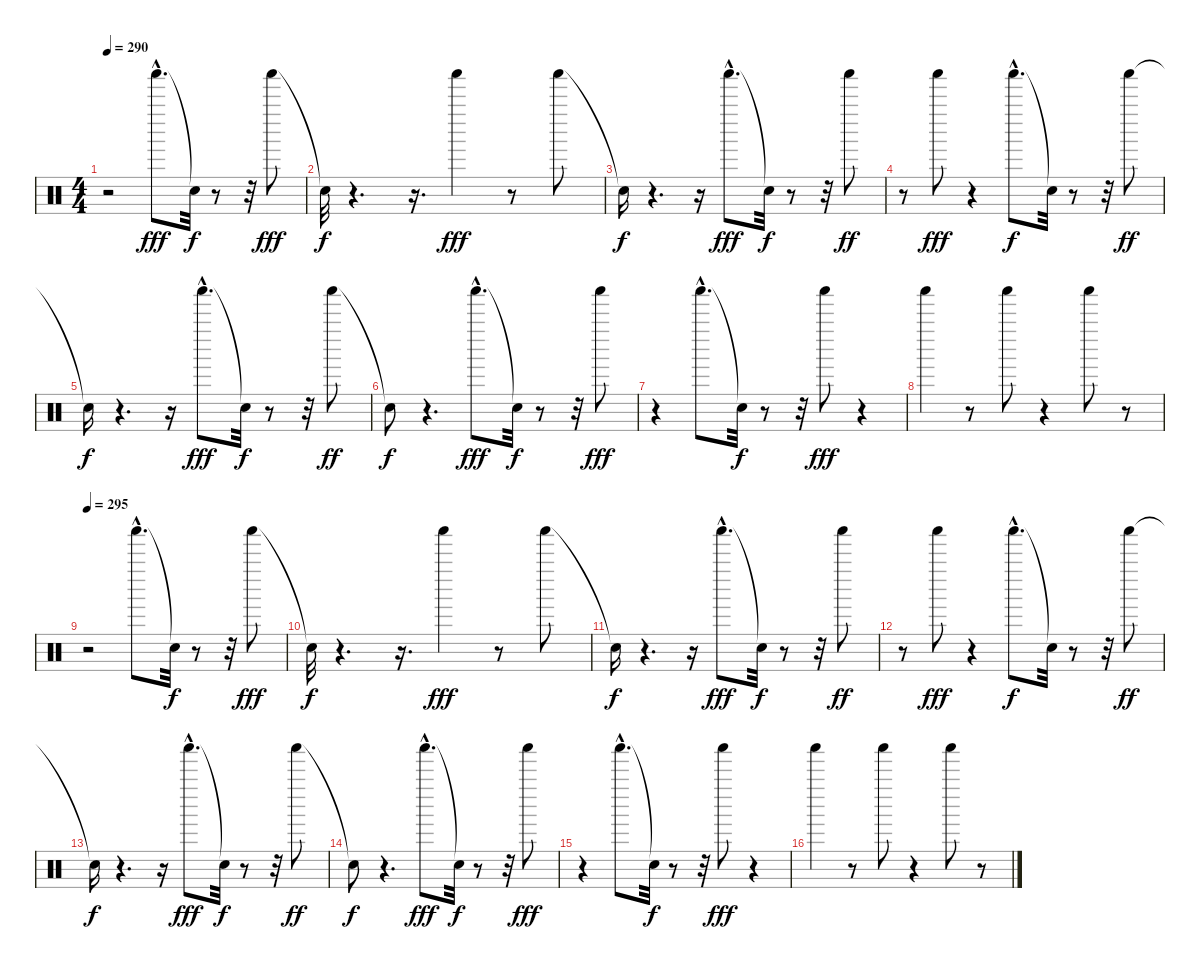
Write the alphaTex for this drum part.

\track "" {instrument percussion}
\staff {score}
\articulation defaults
\ts (4 4)
\tempo 290
\clef neutral
\ks c
r.2{dy fff} "Shaker (hit)"{hac}.8{d} "Snare (hit)"{t}.32{dy f} r.8 r.32 "Shaker (hit)".8{dy fff} |
"Snare (hit)"{t}.32{dy f} r.4{d} r.16{d} "Shaker (hit)".4{dy fff} r.8 "Shaker (hit)".8 |
"Snare (hit)"{t}.16{dy f} r.4{d} r.16 "Shaker (hit)"{hac}.8{d dy fff} "Snare (hit)"{t}.32{dy f} r.8 r.32 "Shaker (hit)".8{dy ff} |
r.8 "Shaker (hit)".8{dy fff} r.4 "Shaker (hit)"{hac}.8{d dy f} "Snare (hit)"{t}.32 r.8 r.32 "Shaker (hit)".8{dy ff} |
"Snare (hit)"{t}.16{dy f} r.4{d} r.16 "Shaker (hit)"{hac}.8{d dy fff} "Snare (hit)"{t}.32{dy f} r.8 r.32 "Shaker (hit)".8{dy ff} |
"Snare (hit)"{t}.8{dy f} r.4{d} "Shaker (hit)"{hac}.8{d dy fff} "Snare (hit)"{t}.32{dy f} r.8 r.32 "Shaker (hit)".8{dy fff} |
r.4 "Shaker (hit)"{hac}.8{d} "Snare (hit)"{t}.32{dy f} r.8 r.32 "Shaker (hit)".8{dy fff} r.4 |
"Shaker (hit)".4 r.8 "Shaker (hit)".8 r.4 "Shaker (hit)".8 r.8 |
\tempo 295
r.2 "Shaker (hit)"{hac}.8{d} "Snare (hit)"{t}.32{dy f} r.8 r.32 "Shaker (hit)".8{dy fff} |
"Snare (hit)"{t}.32{dy f} r.4{d} r.16{d} "Shaker (hit)".4{dy fff} r.8 "Shaker (hit)".8 |
"Snare (hit)"{t}.16{dy f} r.4{d} r.16 "Shaker (hit)"{hac}.8{d dy fff} "Snare (hit)"{t}.32{dy f} r.8 r.32 "Shaker (hit)".8{dy ff} |
r.8 "Shaker (hit)".8{dy fff} r.4 "Shaker (hit)"{hac}.8{d dy f} "Snare (hit)"{t}.32 r.8 r.32 "Shaker (hit)".8{dy ff} |
"Snare (hit)"{t}.16{dy f} r.4{d} r.16 "Shaker (hit)"{hac}.8{d dy fff} "Snare (hit)"{t}.32{dy f} r.8 r.32 "Shaker (hit)".8{dy ff} |
"Snare (hit)"{t}.8{dy f} r.4{d} "Shaker (hit)"{hac}.8{d dy fff} "Snare (hit)"{t}.32{dy f} r.8 r.32 "Shaker (hit)".8{dy fff} |
r.4 "Shaker (hit)"{hac}.8{d} "Snare (hit)"{t}.32{dy f} r.8 r.32 "Shaker (hit)".8{dy fff} r.4 |
"Shaker (hit)".4 r.8 "Shaker (hit)".8 r.4 "Shaker (hit)".8 r.8
